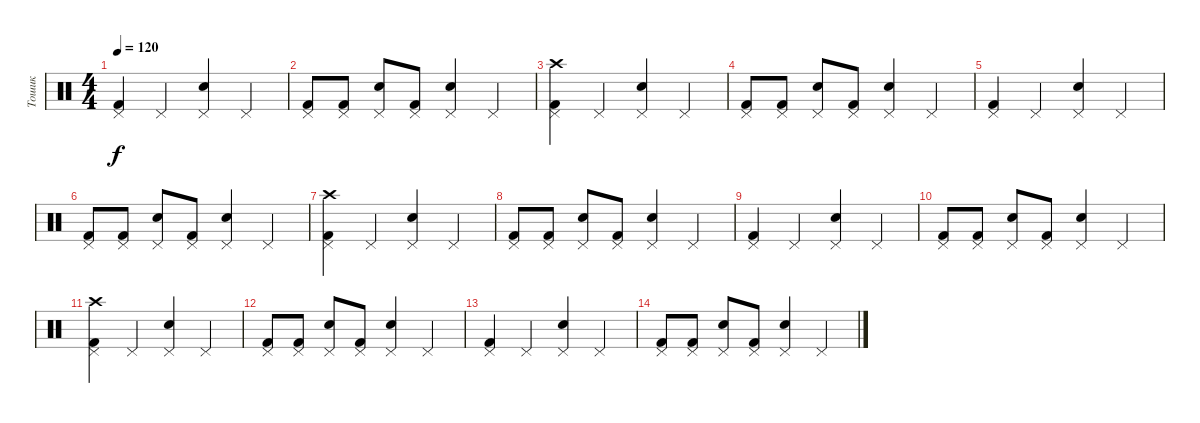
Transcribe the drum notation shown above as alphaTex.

\track ("Тошик" "Тошик") {instrument percussion}
\staff {score}
\articulation defaults
\ts (4 4)
\tempo 120
\clef neutral
\ks c
("Kick (hit) 2" "Pedal Hi-Hat (hit)").4{dy f} "Pedal Hi-Hat (hit)".4 ("Electric Snare (hit)" "Pedal Hi-Hat (hit)").4 "Pedal Hi-Hat (hit)".4 |
("Kick (hit) 2" "Pedal Hi-Hat (hit)").8 ("Kick (hit) 2" "Pedal Hi-Hat (hit)").8 ("Snare (hit) 2" "Pedal Hi-Hat (hit)").8 ("Kick (hit) 2" "Pedal Hi-Hat (hit)").8 ("Electric Snare (hit)" "Pedal Hi-Hat (hit)").4 "Pedal Hi-Hat (hit)".4 |
("Crash high (hit)" "Kick (hit) 2" "Pedal Hi-Hat (hit)").4 "Pedal Hi-Hat (hit)".4 ("Electric Snare (hit)" "Pedal Hi-Hat (hit)").4 "Pedal Hi-Hat (hit)".4 |
("Kick (hit) 2" "Pedal Hi-Hat (hit)").8 ("Kick (hit) 2" "Pedal Hi-Hat (hit)").8 ("Snare (hit) 2" "Pedal Hi-Hat (hit)").8 ("Kick (hit) 2" "Pedal Hi-Hat (hit)").8 ("Electric Snare (hit)" "Pedal Hi-Hat (hit)").4 "Pedal Hi-Hat (hit)".4 |
("Kick (hit) 2" "Pedal Hi-Hat (hit)").4 "Pedal Hi-Hat (hit)".4 ("Electric Snare (hit)" "Pedal Hi-Hat (hit)").4 "Pedal Hi-Hat (hit)".4 |
("Kick (hit) 2" "Pedal Hi-Hat (hit)").8 ("Kick (hit) 2" "Pedal Hi-Hat (hit)").8 ("Snare (hit) 2" "Pedal Hi-Hat (hit)").8 ("Kick (hit) 2" "Pedal Hi-Hat (hit)").8 ("Electric Snare (hit)" "Pedal Hi-Hat (hit)").4 "Pedal Hi-Hat (hit)".4 |
("Crash high (hit)" "Kick (hit) 2" "Pedal Hi-Hat (hit)").4 "Pedal Hi-Hat (hit)".4 ("Electric Snare (hit)" "Pedal Hi-Hat (hit)").4 "Pedal Hi-Hat (hit)".4 |
("Kick (hit) 2" "Pedal Hi-Hat (hit)").8 ("Kick (hit) 2" "Pedal Hi-Hat (hit)").8 ("Snare (hit) 2" "Pedal Hi-Hat (hit)").8 ("Kick (hit) 2" "Pedal Hi-Hat (hit)").8 ("Electric Snare (hit)" "Pedal Hi-Hat (hit)").4 "Pedal Hi-Hat (hit)".4 |
("Kick (hit) 2" "Pedal Hi-Hat (hit)").4 "Pedal Hi-Hat (hit)".4 ("Electric Snare (hit)" "Pedal Hi-Hat (hit)").4 "Pedal Hi-Hat (hit)".4 |
("Kick (hit) 2" "Pedal Hi-Hat (hit)").8 ("Kick (hit) 2" "Pedal Hi-Hat (hit)").8 ("Snare (hit) 2" "Pedal Hi-Hat (hit)").8 ("Kick (hit) 2" "Pedal Hi-Hat (hit)").8 ("Electric Snare (hit)" "Pedal Hi-Hat (hit)").4 "Pedal Hi-Hat (hit)".4 |
("Crash high (hit)" "Kick (hit) 2" "Pedal Hi-Hat (hit)").4 "Pedal Hi-Hat (hit)".4 ("Electric Snare (hit)" "Pedal Hi-Hat (hit)").4 "Pedal Hi-Hat (hit)".4 |
("Kick (hit) 2" "Pedal Hi-Hat (hit)").8 ("Kick (hit) 2" "Pedal Hi-Hat (hit)").8 ("Snare (hit) 2" "Pedal Hi-Hat (hit)").8 ("Kick (hit) 2" "Pedal Hi-Hat (hit)").8 ("Electric Snare (hit)" "Pedal Hi-Hat (hit)").4 "Pedal Hi-Hat (hit)".4 |
("Kick (hit) 2" "Pedal Hi-Hat (hit)").4 "Pedal Hi-Hat (hit)".4 ("Electric Snare (hit)" "Pedal Hi-Hat (hit)").4 "Pedal Hi-Hat (hit)".4 |
("Kick (hit) 2" "Pedal Hi-Hat (hit)").8 ("Kick (hit) 2" "Pedal Hi-Hat (hit)").8 ("Snare (hit) 2" "Pedal Hi-Hat (hit)").8 ("Kick (hit) 2" "Pedal Hi-Hat (hit)").8 ("Electric Snare (hit)" "Pedal Hi-Hat (hit)").4 "Pedal Hi-Hat (hit)".4
